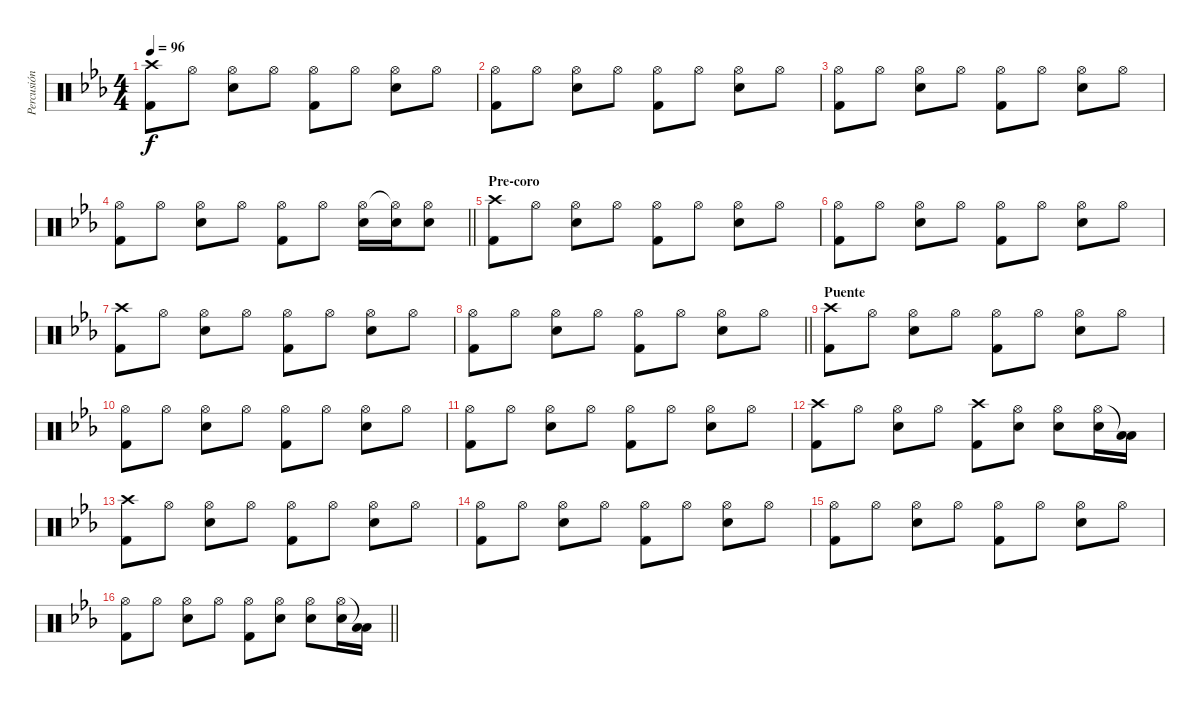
\track ("Percusión" "Percusión") {instrument percussion}
\staff {score}
\articulation defaults
\ts (4 4)
\tempo 96
\clef neutral
\ks eb
("Crash high (hit)" "Kick (hit) 2").8{dy f} "Hi-Hat (open)".8 ("Hi-Hat (open)" "Electric Snare (hit)").8 "Hi-Hat (open)".8 ("Hi-Hat (open)" "Kick (hit) 2").8 "Hi-Hat (open)".8 ("Hi-Hat (open)" "Electric Snare (hit)").8 "Hi-Hat (open)".8 |
("Hi-Hat (open)" "Kick (hit) 2").8 "Hi-Hat (open)".8 ("Hi-Hat (open)" "Electric Snare (hit)").8 "Hi-Hat (open)".8 ("Hi-Hat (open)" "Kick (hit) 2").8 "Hi-Hat (open)".8 ("Hi-Hat (open)" "Electric Snare (hit)").8 "Hi-Hat (open)".8 |
("Hi-Hat (open)" "Kick (hit) 2").8 "Hi-Hat (open)".8 ("Hi-Hat (open)" "Electric Snare (hit)").8 "Hi-Hat (open)".8 ("Hi-Hat (open)" "Kick (hit) 2").8 "Hi-Hat (open)".8 ("Hi-Hat (open)" "Electric Snare (hit)").8 "Hi-Hat (open)".8 |
\barLineRight lightlight
("Hi-Hat (open)" "Kick (hit) 2").8 "Hi-Hat (open)".8 ("Hi-Hat (open)" "Electric Snare (hit)").8 "Hi-Hat (open)".8 ("Hi-Hat (open)" "Kick (hit) 2").8 "Hi-Hat (open)".8 ("Hi-Hat (open)" "Electric Snare (hit)").16 ("Hi-Hat (open)"{t} "Electric Snare (hit)").16 ("Hi-Hat (open)" "Electric Snare (hit)").8 |
\section ("" "Pre-coro")
("Crash high (hit)" "Kick (hit) 2").8 "Hi-Hat (open)".8 ("Hi-Hat (open)" "Electric Snare (hit)").8 "Hi-Hat (open)".8 ("Hi-Hat (open)" "Kick (hit) 2").8 "Hi-Hat (open)".8 ("Hi-Hat (open)" "Electric Snare (hit)").8 "Hi-Hat (open)".8 |
("Hi-Hat (open)" "Kick (hit) 2").8 "Hi-Hat (open)".8 ("Hi-Hat (open)" "Electric Snare (hit)").8 "Hi-Hat (open)".8 ("Hi-Hat (open)" "Kick (hit) 2").8 "Hi-Hat (open)".8 ("Hi-Hat (open)" "Electric Snare (hit)").8 "Hi-Hat (open)".8 |
("Crash high (hit)" "Kick (hit) 2").8 "Hi-Hat (open)".8 ("Hi-Hat (open)" "Electric Snare (hit)").8 "Hi-Hat (open)".8 ("Hi-Hat (open)" "Kick (hit) 2").8 "Hi-Hat (open)".8 ("Hi-Hat (open)" "Electric Snare (hit)").8 "Hi-Hat (open)".8 |
\barLineRight lightlight
("Hi-Hat (open)" "Kick (hit) 2").8 "Hi-Hat (open)".8 ("Hi-Hat (open)" "Electric Snare (hit)").8 "Hi-Hat (open)".8 ("Hi-Hat (open)" "Kick (hit) 2").8 "Hi-Hat (open)".8 ("Hi-Hat (open)" "Electric Snare (hit)").8 "Hi-Hat (open)".8 |
\section ("" "Puente")
("Crash high (hit)" "Kick (hit) 2").8 "Hi-Hat (open)".8 ("Hi-Hat (open)" "Electric Snare (hit)").8 "Hi-Hat (open)".8 ("Hi-Hat (open)" "Kick (hit) 2").8 "Hi-Hat (open)".8 ("Hi-Hat (open)" "Electric Snare (hit)").8 "Hi-Hat (open)".8 |
("Hi-Hat (open)" "Kick (hit) 2").8 "Hi-Hat (open)".8 ("Hi-Hat (open)" "Electric Snare (hit)").8 "Hi-Hat (open)".8 ("Hi-Hat (open)" "Kick (hit) 2").8 "Hi-Hat (open)".8 ("Hi-Hat (open)" "Electric Snare (hit)").8 "Hi-Hat (open)".8 |
("Hi-Hat (open)" "Kick (hit) 2").8 "Hi-Hat (open)".8 ("Hi-Hat (open)" "Electric Snare (hit)").8 "Hi-Hat (open)".8 ("Hi-Hat (open)" "Kick (hit) 2").8 "Hi-Hat (open)".8 ("Hi-Hat (open)" "Electric Snare (hit)").8 "Hi-Hat (open)".8 |
("Crash high (hit)" "Kick (hit) 2").8 "Hi-Hat (open)".8 ("Hi-Hat (open)" "Electric Snare (hit)").8 "Hi-Hat (open)".8 ("Crash high (hit)" "Kick (hit) 2").8 ("Hi-Hat (open)" "Electric Snare (hit)").8 ("Hi-Hat (open)" "Electric Snare (hit)").8 ("Hi-Hat (open)" "Electric Snare (hit)").16 ("Low Tom (hit)"{t} "Low Tom (hit)").16 |
("Crash high (hit)" "Kick (hit) 2").8 "Hi-Hat (open)".8 ("Hi-Hat (open)" "Electric Snare (hit)").8 "Hi-Hat (open)".8 ("Hi-Hat (open)" "Kick (hit) 2").8 "Hi-Hat (open)".8 ("Hi-Hat (open)" "Electric Snare (hit)").8 "Hi-Hat (open)".8 |
("Hi-Hat (open)" "Kick (hit) 2").8 "Hi-Hat (open)".8 ("Hi-Hat (open)" "Electric Snare (hit)").8 "Hi-Hat (open)".8 ("Hi-Hat (open)" "Kick (hit) 2").8 "Hi-Hat (open)".8 ("Hi-Hat (open)" "Electric Snare (hit)").8 "Hi-Hat (open)".8 |
("Hi-Hat (open)" "Kick (hit) 2").8 "Hi-Hat (open)".8 ("Hi-Hat (open)" "Electric Snare (hit)").8 "Hi-Hat (open)".8 ("Hi-Hat (open)" "Kick (hit) 2").8 "Hi-Hat (open)".8 ("Hi-Hat (open)" "Electric Snare (hit)").8 "Hi-Hat (open)".8 |
\barLineRight lightlight
("Hi-Hat (open)" "Kick (hit) 2").8 "Hi-Hat (open)".8 ("Hi-Hat (open)" "Electric Snare (hit)").8 "Hi-Hat (open)".8 ("Hi-Hat (open)" "Kick (hit) 2").8 ("Hi-Hat (open)" "Electric Snare (hit)").8 ("Hi-Hat (open)" "Electric Snare (hit)").8 ("Hi-Hat (open)" "Electric Snare (hit)").16 ("Low Tom (hit)"{t} "Low Tom (hit)").16
